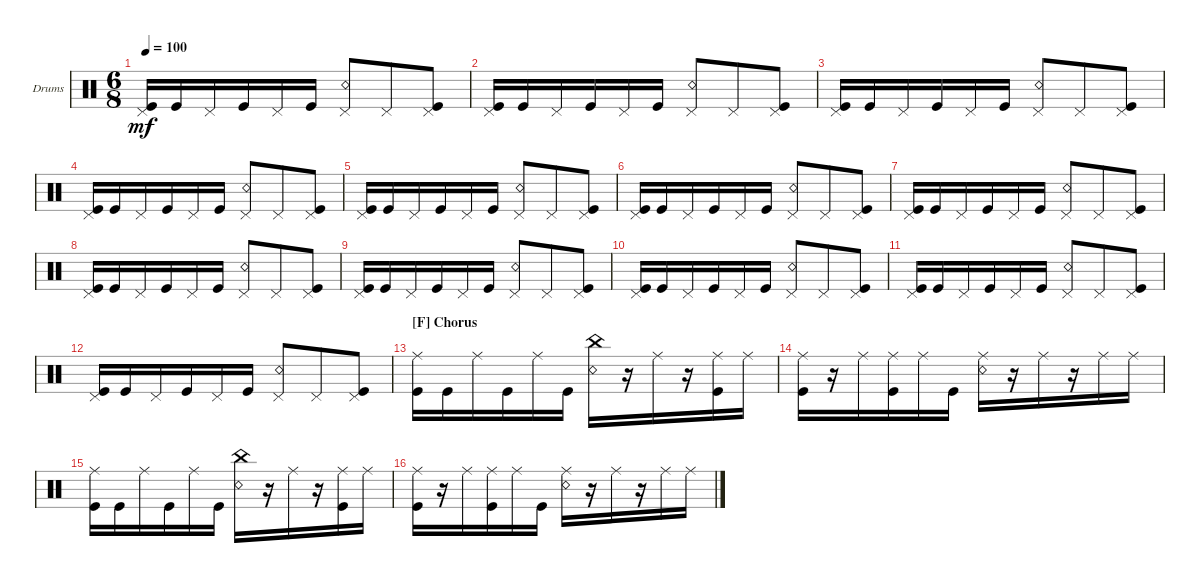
\defaultSystemsLayout 4
\bracketExtendMode groupsimilarinstruments
\firstSystemTrackNameOrientation horizontal
\otherSystemsTrackNameOrientation horizontal
\track ("Drumkit" "Drums") {instrument percussion}
\staff {score}
\articulation defaults
\ts (6 8)
\tempo 100
\clef neutral
\ks aminor
("Pedal Hi-Hat (hit)" "Kick (hit)").16{dy mf} "Kick (hit)".16 "Pedal Hi-Hat (hit)".16 "Kick (hit)".16 "Pedal Hi-Hat (hit)".16 "Kick (hit)".16 ("Pedal Hi-Hat (hit)" "Snare (rim shot)").8 "Pedal Hi-Hat (hit)".8 ("Pedal Hi-Hat (hit)" "Kick (hit)").8 |
("Pedal Hi-Hat (hit)" "Kick (hit)").16 "Kick (hit)".16 "Pedal Hi-Hat (hit)".16 "Kick (hit)".16 "Pedal Hi-Hat (hit)".16 "Kick (hit)".16 ("Pedal Hi-Hat (hit)" "Snare (rim shot)").8 "Pedal Hi-Hat (hit)".8 ("Pedal Hi-Hat (hit)" "Kick (hit)").8 |
("Pedal Hi-Hat (hit)" "Kick (hit)").16 "Kick (hit)".16 "Pedal Hi-Hat (hit)".16 "Kick (hit)".16 "Pedal Hi-Hat (hit)".16 "Kick (hit)".16 ("Pedal Hi-Hat (hit)" "Snare (rim shot)").8 "Pedal Hi-Hat (hit)".8 ("Pedal Hi-Hat (hit)" "Kick (hit)").8 |
("Pedal Hi-Hat (hit)" "Kick (hit)").16 "Kick (hit)".16 "Pedal Hi-Hat (hit)".16 "Kick (hit)".16 "Pedal Hi-Hat (hit)".16 "Kick (hit)".16 ("Pedal Hi-Hat (hit)" "Snare (rim shot)").8 "Pedal Hi-Hat (hit)".8 ("Pedal Hi-Hat (hit)" "Kick (hit)").8 |
("Pedal Hi-Hat (hit)" "Kick (hit)").16 "Kick (hit)".16 "Pedal Hi-Hat (hit)".16 "Kick (hit)".16 "Pedal Hi-Hat (hit)".16 "Kick (hit)".16 ("Pedal Hi-Hat (hit)" "Snare (rim shot)").8 "Pedal Hi-Hat (hit)".8 ("Pedal Hi-Hat (hit)" "Kick (hit)").8 |
("Pedal Hi-Hat (hit)" "Kick (hit)").16 "Kick (hit)".16 "Pedal Hi-Hat (hit)".16 "Kick (hit)".16 "Pedal Hi-Hat (hit)".16 "Kick (hit)".16 ("Pedal Hi-Hat (hit)" "Snare (rim shot)").8 "Pedal Hi-Hat (hit)".8 ("Pedal Hi-Hat (hit)" "Kick (hit)").8 |
("Pedal Hi-Hat (hit)" "Kick (hit)").16 "Kick (hit)".16 "Pedal Hi-Hat (hit)".16 "Kick (hit)".16 "Pedal Hi-Hat (hit)".16 "Kick (hit)".16 ("Pedal Hi-Hat (hit)" "Snare (rim shot)").8 "Pedal Hi-Hat (hit)".8 ("Pedal Hi-Hat (hit)" "Kick (hit)").8 |
("Pedal Hi-Hat (hit)" "Kick (hit)").16 "Kick (hit)".16 "Pedal Hi-Hat (hit)".16 "Kick (hit)".16 "Pedal Hi-Hat (hit)".16 "Kick (hit)".16 ("Pedal Hi-Hat (hit)" "Snare (rim shot)").8 "Pedal Hi-Hat (hit)".8 ("Pedal Hi-Hat (hit)" "Kick (hit)").8 |
("Pedal Hi-Hat (hit)" "Kick (hit)").16 "Kick (hit)".16 "Pedal Hi-Hat (hit)".16 "Kick (hit)".16 "Pedal Hi-Hat (hit)".16 "Kick (hit)".16 ("Pedal Hi-Hat (hit)" "Snare (rim shot)").8 "Pedal Hi-Hat (hit)".8 ("Pedal Hi-Hat (hit)" "Kick (hit)").8 |
("Pedal Hi-Hat (hit)" "Kick (hit)").16 "Kick (hit)".16 "Pedal Hi-Hat (hit)".16 "Kick (hit)".16 "Pedal Hi-Hat (hit)".16 "Kick (hit)".16 ("Pedal Hi-Hat (hit)" "Snare (rim shot)").8 "Pedal Hi-Hat (hit)".8 ("Pedal Hi-Hat (hit)" "Kick (hit)").8 |
("Pedal Hi-Hat (hit)" "Kick (hit)").16 "Kick (hit)".16 "Pedal Hi-Hat (hit)".16 "Kick (hit)".16 "Pedal Hi-Hat (hit)".16 "Kick (hit)".16 ("Pedal Hi-Hat (hit)" "Snare (rim shot)").8 "Pedal Hi-Hat (hit)".8 ("Pedal Hi-Hat (hit)" "Kick (hit)").8 |
("Pedal Hi-Hat (hit)" "Kick (hit)").16 "Kick (hit)".16 "Pedal Hi-Hat (hit)".16 "Kick (hit)".16 "Pedal Hi-Hat (hit)".16 "Kick (hit)".16 ("Pedal Hi-Hat (hit)" "Snare (rim shot)").8 "Pedal Hi-Hat (hit)".8 ("Pedal Hi-Hat (hit)" "Kick (hit)").8 |
\section ("F" "Chorus")
("Ride (middle)" "Kick (hit)").16 "Kick (hit)".16 "Ride (middle)".16 "Kick (hit)".16 "Ride (middle)".16 "Kick (hit)".16 ("Snare (rim shot)" "China (hit)").16 r.16 "Ride (middle)".16 r.16 ("Ride (middle)" "Kick (hit)").16 "Ride (middle)".16 |
("Ride (middle)" "Kick (hit)").16 r.16 "Ride (middle)".16 ("Ride (middle)" "Kick (hit)").16 "Ride (middle)".16 "Kick (hit)".16 ("Ride (middle)" "Snare (rim shot)").16 r.16 "Ride (middle)".16 r.16 "Ride (middle)".16 "Ride (middle)".16 |
("Ride (middle)" "Kick (hit)").16 "Kick (hit)".16 "Ride (middle)".16 "Kick (hit)".16 "Ride (middle)".16 "Kick (hit)".16 ("Snare (rim shot)" "China (hit)").16 r.16 "Ride (middle)".16 r.16 ("Ride (middle)" "Kick (hit)").16 "Ride (middle)".16 |
("Ride (middle)" "Kick (hit)").16 r.16 "Ride (middle)".16 ("Ride (middle)" "Kick (hit)").16 "Ride (middle)".16 "Kick (hit)".16 ("Ride (middle)" "Snare (rim shot)").16 r.16 "Ride (middle)".16 r.16 "Ride (middle)".16 "Ride (middle)".16
